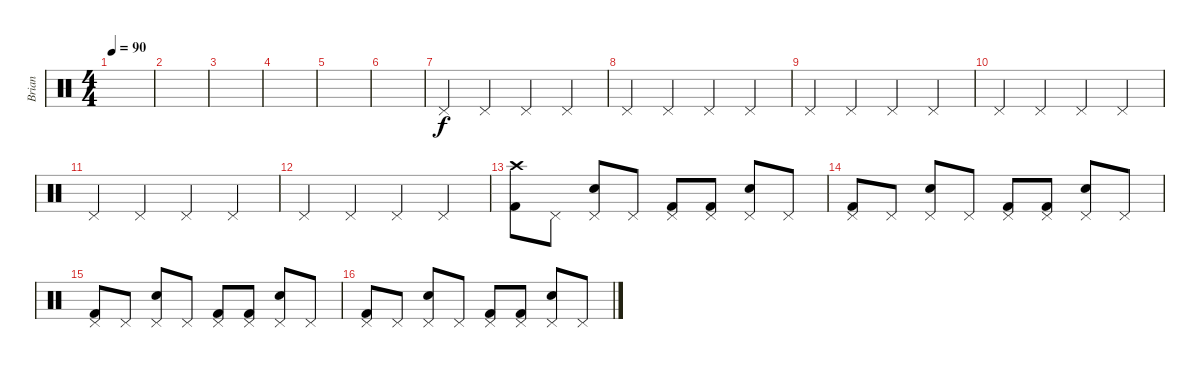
\track ("Brian" "Brian") {instrument percussion}
\staff {score}
\articulation defaults
\ts (4 4)
\tempo 90
\clef neutral
\ks c
|
|
|
|
|
|
"Pedal Hi-Hat (hit)".4 "Pedal Hi-Hat (hit)".4 "Pedal Hi-Hat (hit)".4 "Pedal Hi-Hat (hit)".4 |
"Pedal Hi-Hat (hit)".4 "Pedal Hi-Hat (hit)".4 "Pedal Hi-Hat (hit)".4 "Pedal Hi-Hat (hit)".4 |
"Pedal Hi-Hat (hit)".4 "Pedal Hi-Hat (hit)".4 "Pedal Hi-Hat (hit)".4 "Pedal Hi-Hat (hit)".4 |
"Pedal Hi-Hat (hit)".4 "Pedal Hi-Hat (hit)".4 "Pedal Hi-Hat (hit)".4 "Pedal Hi-Hat (hit)".4 |
"Pedal Hi-Hat (hit)".4 "Pedal Hi-Hat (hit)".4 "Pedal Hi-Hat (hit)".4 "Pedal Hi-Hat (hit)".4 |
"Pedal Hi-Hat (hit)".4 "Pedal Hi-Hat (hit)".4 "Pedal Hi-Hat (hit)".4 "Pedal Hi-Hat (hit)".4 |
("Crash high (hit)" "Kick (hit) 2").8 "Pedal Hi-Hat (hit)".8 ("Pedal Hi-Hat (hit)" "Electric Snare (hit)").8 "Pedal Hi-Hat (hit)".8 ("Pedal Hi-Hat (hit)" "Kick (hit) 2").8 ("Pedal Hi-Hat (hit)" "Kick (hit) 2").8 ("Pedal Hi-Hat (hit)" "Electric Snare (hit)").8 "Pedal Hi-Hat (hit)".8 |
("Pedal Hi-Hat (hit)" "Kick (hit) 2").8 "Pedal Hi-Hat (hit)".8 ("Pedal Hi-Hat (hit)" "Electric Snare (hit)").8 "Pedal Hi-Hat (hit)".8 ("Pedal Hi-Hat (hit)" "Kick (hit) 2").8 ("Pedal Hi-Hat (hit)" "Kick (hit) 2").8 ("Pedal Hi-Hat (hit)" "Electric Snare (hit)").8 "Pedal Hi-Hat (hit)".8 |
("Pedal Hi-Hat (hit)" "Kick (hit) 2").8 "Pedal Hi-Hat (hit)".8 ("Pedal Hi-Hat (hit)" "Electric Snare (hit)").8 "Pedal Hi-Hat (hit)".8 ("Pedal Hi-Hat (hit)" "Kick (hit) 2").8 ("Pedal Hi-Hat (hit)" "Kick (hit) 2").8 ("Pedal Hi-Hat (hit)" "Electric Snare (hit)").8 "Pedal Hi-Hat (hit)".8 |
("Pedal Hi-Hat (hit)" "Kick (hit) 2").8 "Pedal Hi-Hat (hit)".8 ("Pedal Hi-Hat (hit)" "Electric Snare (hit)").8 "Pedal Hi-Hat (hit)".8 ("Pedal Hi-Hat (hit)" "Kick (hit) 2").8 ("Pedal Hi-Hat (hit)" "Kick (hit) 2").8 ("Pedal Hi-Hat (hit)" "Electric Snare (hit)").8 "Pedal Hi-Hat (hit)".8
